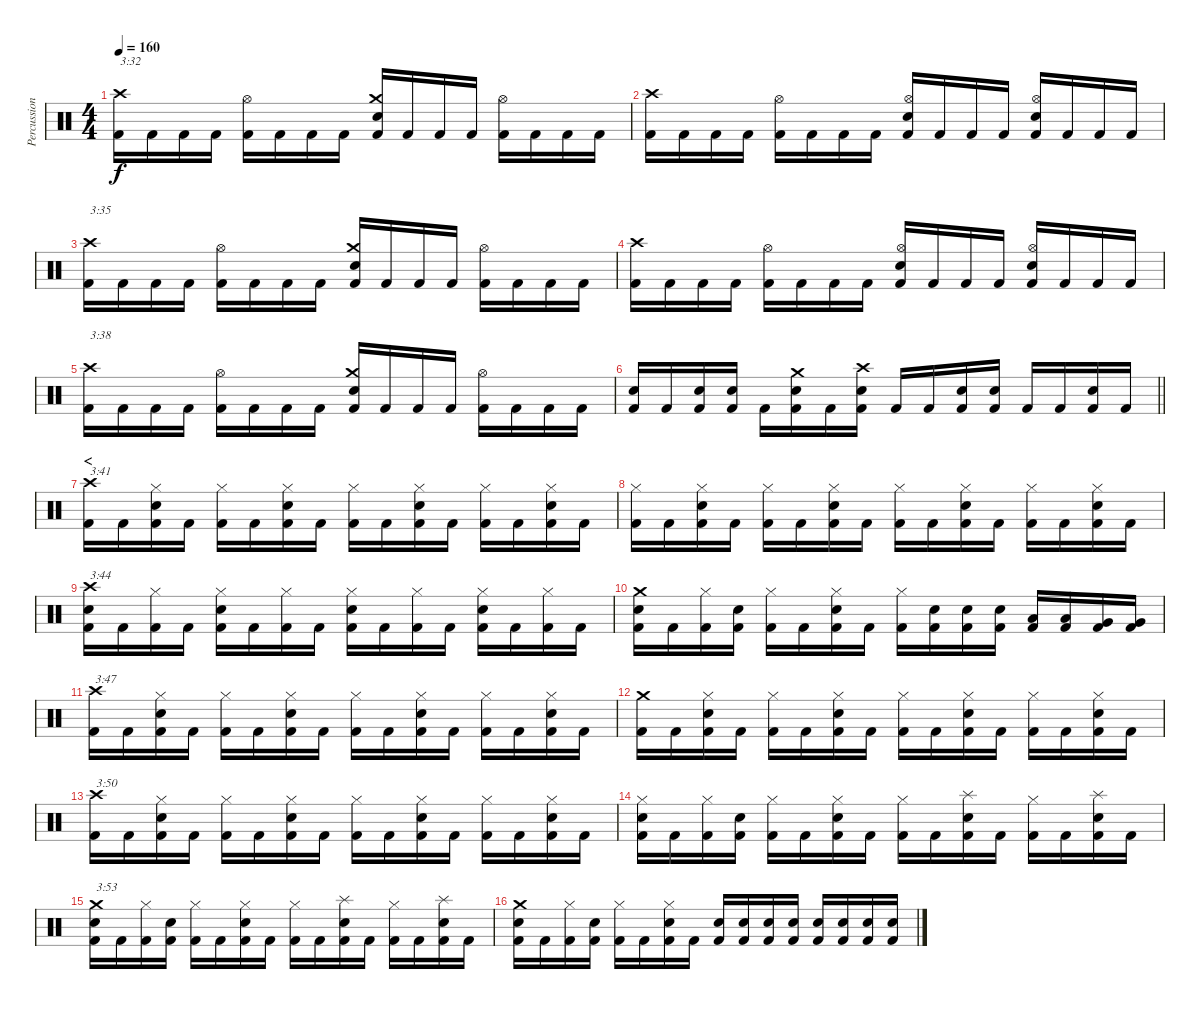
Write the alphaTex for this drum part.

\track ("Percussion" "Percussion") {instrument percussion}
\staff {score}
\articulation defaults
\ts (4 4)
\tempo 160
\clef neutral
\ks c
("Crash high (hit)" "Kick (hit) 2").16{txt "3:32" dy f} "Kick (hit) 2".16 "Kick (hit) 2".16 "Kick (hit) 2".16 ("Hi-Hat (open)" "Kick (hit) 2").16 "Kick (hit) 2".16 "Kick (hit) 2".16 "Kick (hit) 2".16 ("Crash medium (hit)" "Electric Snare (hit)" "Kick (hit) 2").16 "Kick (hit) 2".16 "Kick (hit) 2".16 "Kick (hit) 2".16 ("Hi-Hat (open)" "Kick (hit) 2").16 "Kick (hit) 2".16 "Kick (hit) 2".16 "Kick (hit) 2".16 |
("Crash high (hit)" "Kick (hit) 2").16 "Kick (hit) 2".16 "Kick (hit) 2".16 "Kick (hit) 2".16 ("Hi-Hat (open)" "Kick (hit) 2").16 "Kick (hit) 2".16 "Kick (hit) 2".16 "Kick (hit) 2".16 ("Hi-Hat (open)" "Electric Snare (hit)" "Kick (hit) 2").16 "Kick (hit) 2".16 "Kick (hit) 2".16 "Kick (hit) 2".16 ("Hi-Hat (open)" "Electric Snare (hit)" "Kick (hit) 2").16 "Kick (hit) 2".16 "Kick (hit) 2".16 "Kick (hit) 2".16 |
("Crash high (hit)" "Kick (hit) 2").16{txt "3:35"} "Kick (hit) 2".16 "Kick (hit) 2".16 "Kick (hit) 2".16 ("Hi-Hat (open)" "Kick (hit) 2").16 "Kick (hit) 2".16 "Kick (hit) 2".16 "Kick (hit) 2".16 ("Crash medium (hit)" "Electric Snare (hit)" "Kick (hit) 2").16 "Kick (hit) 2".16 "Kick (hit) 2".16 "Kick (hit) 2".16 ("Hi-Hat (open)" "Kick (hit) 2").16 "Kick (hit) 2".16 "Kick (hit) 2".16 "Kick (hit) 2".16 |
("Crash high (hit)" "Kick (hit) 2").16 "Kick (hit) 2".16 "Kick (hit) 2".16 "Kick (hit) 2".16 ("Hi-Hat (open)" "Kick (hit) 2").16 "Kick (hit) 2".16 "Kick (hit) 2".16 "Kick (hit) 2".16 ("Hi-Hat (open)" "Electric Snare (hit)" "Kick (hit) 2").16 "Kick (hit) 2".16 "Kick (hit) 2".16 "Kick (hit) 2".16 ("Hi-Hat (open)" "Electric Snare (hit)" "Kick (hit) 2").16 "Kick (hit) 2".16 "Kick (hit) 2".16 "Kick (hit) 2".16 |
("Crash high (hit)" "Kick (hit) 2").16{txt "3:38"} "Kick (hit) 2".16 "Kick (hit) 2".16 "Kick (hit) 2".16 ("Hi-Hat (open)" "Kick (hit) 2").16 "Kick (hit) 2".16 "Kick (hit) 2".16 "Kick (hit) 2".16 ("Crash medium (hit)" "Electric Snare (hit)" "Kick (hit) 2").16 "Kick (hit) 2".16 "Kick (hit) 2".16 "Kick (hit) 2".16 ("Hi-Hat (open)" "Kick (hit) 2").16 "Kick (hit) 2".16 "Kick (hit) 2".16 "Kick (hit) 2".16 |
\barLineRight lightlight
("Electric Snare (hit)" "Kick (hit) 2").16 "Kick (hit) 2".16 ("Electric Snare (hit)" "Kick (hit) 2").16 ("Electric Snare (hit)" "Kick (hit) 2").16 "Kick (hit) 2".16 ("Crash medium (hit)" "Electric Snare (hit)" "Kick (hit) 2").16 "Kick (hit) 2".16 ("Crash high (hit)" "Electric Snare (hit)" "Kick (hit) 2").16 "Kick (hit) 2".16 "Kick (hit) 2".16 ("Electric Snare (hit)" "Kick (hit) 2").16 ("Electric Snare (hit)" "Kick (hit) 2").16 "Kick (hit) 2".16 "Kick (hit) 2".16 ("Electric Snare (hit)" "Kick (hit) 2").16 "Kick (hit) 2".16 |
\section ("" "<")
("Crash high (hit)" "Kick (hit) 2").16{txt "3:41"} "Kick (hit) 2".16 ("Hi-Hat (closed)" "Electric Snare (hit)" "Kick (hit) 2").16 "Kick (hit) 2".16 ("Hi-Hat (closed)" "Kick (hit) 2").16 "Kick (hit) 2".16 ("Hi-Hat (closed)" "Electric Snare (hit)" "Kick (hit) 2").16 "Kick (hit) 2".16 ("Hi-Hat (closed)" "Kick (hit) 2").16 "Kick (hit) 2".16 ("Hi-Hat (closed)" "Electric Snare (hit)" "Kick (hit) 2").16 "Kick (hit) 2".16 ("Hi-Hat (closed)" "Kick (hit) 2").16 "Kick (hit) 2".16 ("Hi-Hat (closed)" "Electric Snare (hit)" "Kick (hit) 2").16 "Kick (hit) 2".16 |
("Hi-Hat (closed)" "Kick (hit) 2").16 "Kick (hit) 2".16 ("Hi-Hat (closed)" "Electric Snare (hit)" "Kick (hit) 2").16 "Kick (hit) 2".16 ("Hi-Hat (closed)" "Kick (hit) 2").16 "Kick (hit) 2".16 ("Hi-Hat (closed)" "Electric Snare (hit)" "Kick (hit) 2").16 "Kick (hit) 2".16 ("Hi-Hat (closed)" "Kick (hit) 2").16 "Kick (hit) 2".16 ("Hi-Hat (closed)" "Electric Snare (hit)" "Kick (hit) 2").16 "Kick (hit) 2".16 ("Hi-Hat (closed)" "Kick (hit) 2").16 "Kick (hit) 2".16 ("Hi-Hat (closed)" "Electric Snare (hit)" "Kick (hit) 2").16 "Kick (hit) 2".16 |
("Crash high (hit)" "Electric Snare (hit)" "Kick (hit) 2").16{txt "3:44"} "Kick (hit) 2".16 ("Hi-Hat (closed)" "Kick (hit) 2").16 "Kick (hit) 2".16 ("Hi-Hat (closed)" "Electric Snare (hit)" "Kick (hit) 2").16 "Kick (hit) 2".16 ("Hi-Hat (closed)" "Kick (hit) 2").16 "Kick (hit) 2".16 ("Hi-Hat (closed)" "Electric Snare (hit)" "Kick (hit) 2").16 "Kick (hit) 2".16 ("Hi-Hat (closed)" "Kick (hit) 2").16 "Kick (hit) 2".16 ("Hi-Hat (closed)" "Electric Snare (hit)" "Kick (hit) 2").16 "Kick (hit) 2".16 ("Hi-Hat (closed)" "Kick (hit) 2").16 "Kick (hit) 2".16 |
("Crash medium (hit)" "Electric Snare (hit)" "Kick (hit) 2").16 "Kick (hit) 2".16 ("Hi-Hat (closed)" "Kick (hit) 2").16 ("Electric Snare (hit)" "Kick (hit) 2").16 ("Hi-Hat (closed)" "Kick (hit) 2").16 "Kick (hit) 2".16 ("Hi-Hat (closed)" "Electric Snare (hit)" "Kick (hit) 2").16 "Kick (hit) 2".16 ("Hi-Hat (closed)" "Kick (hit) 2").16 ("Electric Snare (hit)" "Kick (hit) 2").16 ("Electric Snare (hit)" "Kick (hit) 2").16 ("Electric Snare (hit)" "Kick (hit) 2").16 ("Low Tom (hit)" "Kick (hit) 2").16 ("Low Tom (hit)" "Kick (hit) 2").16 ("Very Low Tom (hit)" "Kick (hit) 2").16 ("Very Low Tom (hit)" "Kick (hit) 2").16 |
("Crash high (hit)" "Kick (hit) 2").16{txt "3:47"} "Kick (hit) 2".16 ("Hi-Hat (closed)" "Electric Snare (hit)" "Kick (hit) 2").16 "Kick (hit) 2".16 ("Hi-Hat (closed)" "Kick (hit) 2").16 "Kick (hit) 2".16 ("Hi-Hat (closed)" "Electric Snare (hit)" "Kick (hit) 2").16 "Kick (hit) 2".16 ("Hi-Hat (closed)" "Kick (hit) 2").16 "Kick (hit) 2".16 ("Hi-Hat (closed)" "Electric Snare (hit)" "Kick (hit) 2").16 "Kick (hit) 2".16 ("Hi-Hat (closed)" "Kick (hit) 2").16 "Kick (hit) 2".16 ("Hi-Hat (closed)" "Electric Snare (hit)" "Kick (hit) 2").16 "Kick (hit) 2".16 |
("Crash medium (hit)" "Kick (hit) 2").16 "Kick (hit) 2".16 ("Hi-Hat (closed)" "Electric Snare (hit)" "Kick (hit) 2").16 "Kick (hit) 2".16 ("Hi-Hat (closed)" "Kick (hit) 2").16 "Kick (hit) 2".16 ("Hi-Hat (closed)" "Electric Snare (hit)" "Kick (hit) 2").16 "Kick (hit) 2".16 ("Hi-Hat (closed)" "Kick (hit) 2").16 "Kick (hit) 2".16 ("Hi-Hat (closed)" "Electric Snare (hit)" "Kick (hit) 2").16 "Kick (hit) 2".16 ("Hi-Hat (closed)" "Kick (hit) 2").16 "Kick (hit) 2".16 ("Hi-Hat (closed)" "Electric Snare (hit)" "Kick (hit) 2").16 "Kick (hit) 2".16 |
("Crash high (hit)" "Kick (hit) 2").16{txt "3:50"} "Kick (hit) 2".16 ("Hi-Hat (closed)" "Electric Snare (hit)" "Kick (hit) 2").16 "Kick (hit) 2".16 ("Hi-Hat (closed)" "Kick (hit) 2").16 "Kick (hit) 2".16 ("Hi-Hat (closed)" "Electric Snare (hit)" "Kick (hit) 2").16 "Kick (hit) 2".16 ("Hi-Hat (closed)" "Kick (hit) 2").16 "Kick (hit) 2".16 ("Hi-Hat (closed)" "Electric Snare (hit)" "Kick (hit) 2").16 "Kick (hit) 2".16 ("Hi-Hat (closed)" "Kick (hit) 2").16 "Kick (hit) 2".16 ("Hi-Hat (closed)" "Electric Snare (hit)" "Kick (hit) 2").16 "Kick (hit) 2".16 |
("Hi-Hat (closed)" "Electric Snare (hit)" "Kick (hit) 2").16 "Kick (hit) 2".16 ("Hi-Hat (closed)" "Kick (hit) 2").16 ("Electric Snare (hit)" "Kick (hit) 2").16 ("Hi-Hat (closed)" "Kick (hit) 2").16 "Kick (hit) 2".16 ("Hi-Hat (closed)" "Electric Snare (hit)" "Kick (hit) 2").16 "Kick (hit) 2".16 ("Hi-Hat (closed)" "Kick (hit) 2").16 "Kick (hit) 2".16 ("Splash (hit)" "Electric Snare (hit)" "Kick (hit) 2").16 "Kick (hit) 2".16 ("Hi-Hat (closed)" "Kick (hit) 2").16 "Kick (hit) 2".16 ("Splash (hit)" "Electric Snare (hit)" "Kick (hit) 2").16 "Kick (hit) 2".16 |
("Crash medium (hit)" "Electric Snare (hit)" "Kick (hit) 2").16{txt "3:53"} "Kick (hit) 2".16 ("Hi-Hat (closed)" "Kick (hit) 2").16 ("Electric Snare (hit)" "Kick (hit) 2").16 ("Hi-Hat (closed)" "Kick (hit) 2").16 "Kick (hit) 2".16 ("Hi-Hat (closed)" "Electric Snare (hit)" "Kick (hit) 2").16 "Kick (hit) 2".16 ("Hi-Hat (closed)" "Kick (hit) 2").16 "Kick (hit) 2".16 ("Splash (hit)" "Electric Snare (hit)" "Kick (hit) 2").16 "Kick (hit) 2".16 ("Hi-Hat (closed)" "Kick (hit) 2").16 "Kick (hit) 2".16 ("Splash (hit)" "Electric Snare (hit)" "Kick (hit) 2").16 "Kick (hit) 2".16 |
("Crash medium (hit)" "Electric Snare (hit)" "Kick (hit) 2").16 "Kick (hit) 2".16 ("Hi-Hat (closed)" "Kick (hit) 2").16 ("Electric Snare (hit)" "Kick (hit) 2").16 ("Hi-Hat (closed)" "Kick (hit) 2").16 "Kick (hit) 2".16 ("Hi-Hat (closed)" "Electric Snare (hit)" "Kick (hit) 2").16 "Kick (hit) 2".16 ("Electric Snare (hit)" "Kick (hit) 2").16 ("Electric Snare (hit)" "Kick (hit) 2").16 ("Electric Snare (hit)" "Kick (hit) 2").16 ("Electric Snare (hit)" "Kick (hit) 2").16 ("Electric Snare (hit)" "Kick (hit) 2").16 ("Electric Snare (hit)" "Kick (hit) 2").16 ("Electric Snare (hit)" "Kick (hit) 2").16 ("Electric Snare (hit)" "Kick (hit) 2").16
